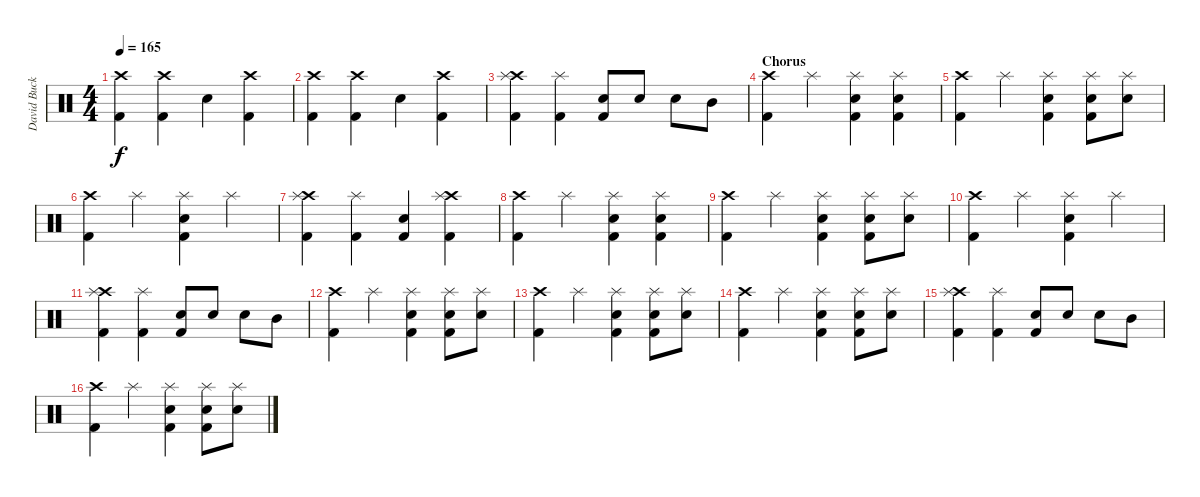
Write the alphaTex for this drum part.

\track ("David Buckner" "David Buck") {instrument percussion}
\staff {score}
\articulation defaults
\ts (4 4)
\tempo 165
\clef neutral
\ks c
("Crash high (hit)" "Kick (hit) 2").4{dy f} ("Crash high (hit)" "Kick (hit) 2").4 "Snare (hit) 2".4 ("Crash high (hit)" "Kick (hit) 2").4 |
("Crash high (hit)" "Kick (hit) 2").4 ("Crash high (hit)" "Kick (hit) 2").4 "Snare (hit) 2".4 ("Crash high (hit)" "Kick (hit) 2").4 |
("Crash high (hit)" "Splash (hit)" "Kick (hit) 2").4 ("Splash (hit)" "Kick (hit) 2").4 ("Snare (hit) 2" "Kick (hit) 2").8 "Snare (hit) 2".8 "Snare (hit) 2".8 "Mid Tom (hit)".8 |
\section ("" "Chorus")
("Crash high (hit)" "Kick (hit) 2").4 "Splash (hit)".4 ("Splash (hit)" "Snare (hit) 2" "Kick (hit) 2").4 ("Splash (hit)" "Snare (hit) 2" "Kick (hit) 2").4 |
("Crash high (hit)" "Kick (hit) 2").4 "Splash (hit)".4 ("Splash (hit)" "Snare (hit) 2" "Kick (hit) 2").4 ("Splash (hit)" "Snare (hit) 2" "Kick (hit) 2").8 ("Splash (hit)" "Snare (hit) 2").8 |
("Crash high (hit)" "Kick (hit) 2").4 "Splash (hit)".4 ("Splash (hit)" "Snare (hit) 2" "Kick (hit) 2").4 "Splash (hit)".4 |
("Crash high (hit)" "Splash (hit)" "Kick (hit) 2").4 ("Splash (hit)" "Kick (hit) 2").4 ("Snare (hit) 2" "Kick (hit) 2").4 ("Crash high (hit)" "Splash (hit)" "Kick (hit) 2").4 |
("Crash high (hit)" "Kick (hit) 2").4 "Splash (hit)".4 ("Splash (hit)" "Snare (hit) 2" "Kick (hit) 2").4 ("Splash (hit)" "Snare (hit) 2" "Kick (hit) 2").4 |
("Crash high (hit)" "Kick (hit) 2").4 "Splash (hit)".4 ("Splash (hit)" "Snare (hit) 2" "Kick (hit) 2").4 ("Splash (hit)" "Snare (hit) 2" "Kick (hit) 2").8 ("Splash (hit)" "Snare (hit) 2").8 |
("Crash high (hit)" "Kick (hit) 2").4 "Splash (hit)".4 ("Splash (hit)" "Snare (hit) 2" "Kick (hit) 2").4 "Splash (hit)".4 |
("Crash high (hit)" "Splash (hit)" "Kick (hit) 2").4 ("Splash (hit)" "Kick (hit) 2").4 ("Snare (hit) 2" "Kick (hit) 2").8 "Snare (hit) 2".8 "Snare (hit) 2".8 "Mid Tom (hit)".8 |
("Crash high (hit)" "Kick (hit) 2").4 "Splash (hit)".4 ("Splash (hit)" "Snare (hit) 2" "Kick (hit) 2").4 ("Splash (hit)" "Snare (hit) 2" "Kick (hit) 2").8 ("Splash (hit)" "Snare (hit) 2").8 |
("Crash high (hit)" "Kick (hit) 2").4 "Splash (hit)".4 ("Splash (hit)" "Snare (hit) 2" "Kick (hit) 2").4 ("Splash (hit)" "Snare (hit) 2" "Kick (hit) 2").8 ("Splash (hit)" "Snare (hit) 2").8 |
("Crash high (hit)" "Kick (hit) 2").4 "Splash (hit)".4 ("Splash (hit)" "Snare (hit) 2" "Kick (hit) 2").4 ("Splash (hit)" "Snare (hit) 2" "Kick (hit) 2").8 ("Splash (hit)" "Snare (hit) 2").8 |
("Crash high (hit)" "Splash (hit)" "Kick (hit) 2").4 ("Splash (hit)" "Kick (hit) 2").4 ("Snare (hit) 2" "Kick (hit) 2").8 "Snare (hit) 2".8 "Snare (hit) 2".8 "Mid Tom (hit)".8 |
("Crash high (hit)" "Kick (hit) 2").4 "Splash (hit)".4 ("Splash (hit)" "Snare (hit) 2" "Kick (hit) 2").4 ("Splash (hit)" "Snare (hit) 2" "Kick (hit) 2").8 ("Splash (hit)" "Snare (hit) 2").8
